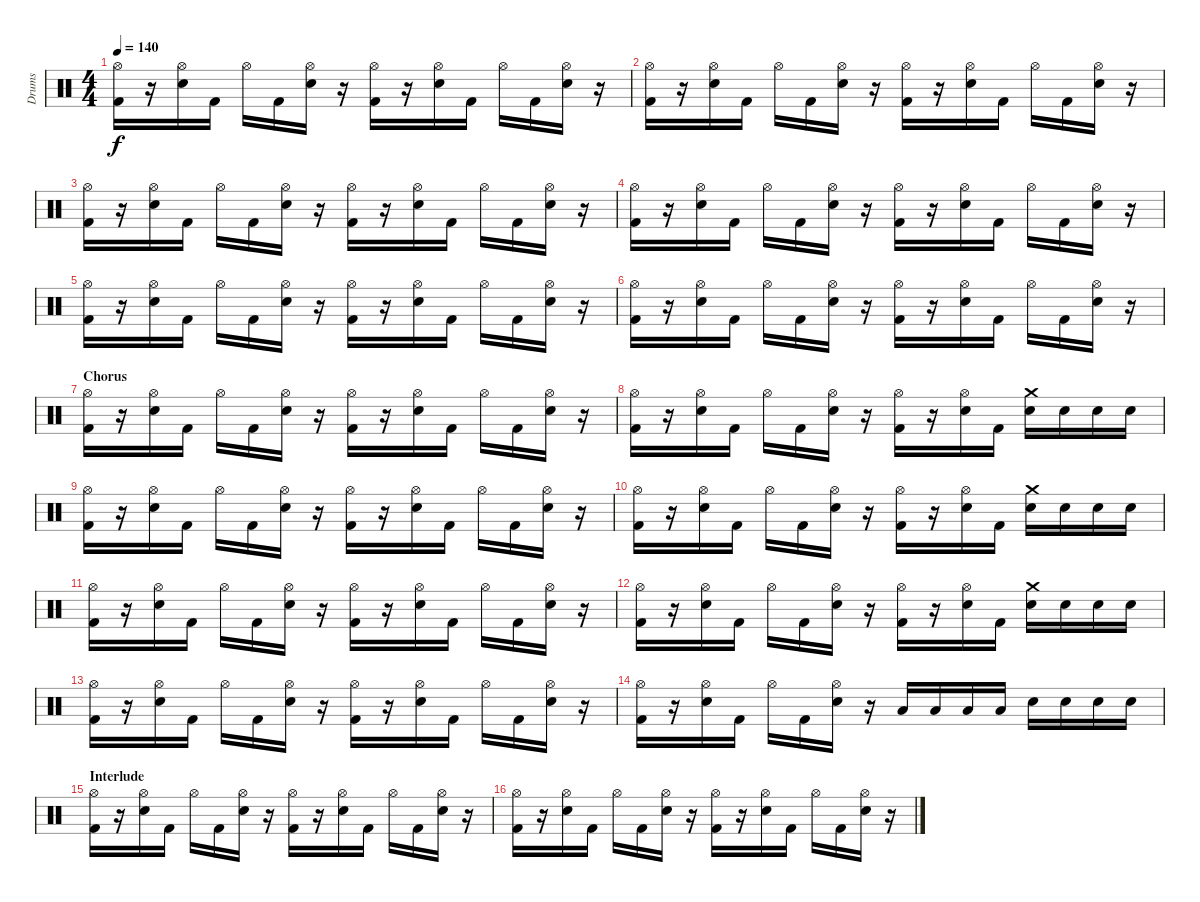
\track ("Drums" "Drums") {instrument percussion}
\staff {score}
\articulation defaults
\ts (4 4)
\tempo 140
\clef neutral
\ks c
("Hi-Hat (open)" "Kick (hit) 2").16{dy f} r.16 ("Hi-Hat (open)" "Electric Snare (hit)").16 "Kick (hit) 2".16 "Hi-Hat (open)".16 "Kick (hit) 2".16 ("Hi-Hat (open)" "Electric Snare (hit)").16 r.16 ("Hi-Hat (open)" "Kick (hit) 2").16 r.16 ("Hi-Hat (open)" "Electric Snare (hit)").16 "Kick (hit) 2".16 "Hi-Hat (open)".16 "Kick (hit) 2".16 ("Hi-Hat (open)" "Electric Snare (hit)").16 r.16 |
("Hi-Hat (open)" "Kick (hit) 2").16 r.16 ("Hi-Hat (open)" "Electric Snare (hit)").16 "Kick (hit) 2".16 "Hi-Hat (open)".16 "Kick (hit) 2".16 ("Hi-Hat (open)" "Electric Snare (hit)").16 r.16 ("Hi-Hat (open)" "Kick (hit) 2").16 r.16 ("Hi-Hat (open)" "Electric Snare (hit)").16 "Kick (hit) 2".16 "Hi-Hat (open)".16 "Kick (hit) 2".16 ("Hi-Hat (open)" "Electric Snare (hit)").16 r.16 |
("Hi-Hat (open)" "Kick (hit) 2").16 r.16 ("Hi-Hat (open)" "Electric Snare (hit)").16 "Kick (hit) 2".16 "Hi-Hat (open)".16 "Kick (hit) 2".16 ("Hi-Hat (open)" "Electric Snare (hit)").16 r.16 ("Hi-Hat (open)" "Kick (hit) 2").16 r.16 ("Hi-Hat (open)" "Electric Snare (hit)").16 "Kick (hit) 2".16 "Hi-Hat (open)".16 "Kick (hit) 2".16 ("Hi-Hat (open)" "Electric Snare (hit)").16 r.16 |
("Hi-Hat (open)" "Kick (hit) 2").16 r.16 ("Hi-Hat (open)" "Electric Snare (hit)").16 "Kick (hit) 2".16 "Hi-Hat (open)".16 "Kick (hit) 2".16 ("Hi-Hat (open)" "Electric Snare (hit)").16 r.16 ("Hi-Hat (open)" "Kick (hit) 2").16 r.16 ("Hi-Hat (open)" "Electric Snare (hit)").16 "Kick (hit) 2".16 "Hi-Hat (open)".16 "Kick (hit) 2".16 ("Hi-Hat (open)" "Electric Snare (hit)").16 r.16 |
("Hi-Hat (open)" "Kick (hit) 2").16 r.16 ("Hi-Hat (open)" "Electric Snare (hit)").16 "Kick (hit) 2".16 "Hi-Hat (open)".16 "Kick (hit) 2".16 ("Hi-Hat (open)" "Electric Snare (hit)").16 r.16 ("Hi-Hat (open)" "Kick (hit) 2").16 r.16 ("Hi-Hat (open)" "Electric Snare (hit)").16 "Kick (hit) 2".16 "Hi-Hat (open)".16 "Kick (hit) 2".16 ("Hi-Hat (open)" "Electric Snare (hit)").16 r.16 |
("Hi-Hat (open)" "Kick (hit) 2").16 r.16 ("Hi-Hat (open)" "Electric Snare (hit)").16 "Kick (hit) 2".16 "Hi-Hat (open)".16 "Kick (hit) 2".16 ("Hi-Hat (open)" "Electric Snare (hit)").16 r.16 ("Hi-Hat (open)" "Kick (hit) 2").16 r.16 ("Hi-Hat (open)" "Electric Snare (hit)").16 "Kick (hit) 2".16 "Hi-Hat (open)".16 "Kick (hit) 2".16 ("Hi-Hat (open)" "Electric Snare (hit)").16 r.16 |
\section ("" "Chorus")
("Hi-Hat (open)" "Kick (hit) 2").16 r.16 ("Hi-Hat (open)" "Electric Snare (hit)").16 "Kick (hit) 2".16 "Hi-Hat (open)".16 "Kick (hit) 2".16 ("Hi-Hat (open)" "Electric Snare (hit)").16 r.16 ("Hi-Hat (open)" "Kick (hit) 2").16 r.16 ("Hi-Hat (open)" "Electric Snare (hit)").16 "Kick (hit) 2".16 "Hi-Hat (open)".16 "Kick (hit) 2".16 ("Hi-Hat (open)" "Electric Snare (hit)").16 r.16 |
("Hi-Hat (open)" "Kick (hit) 2").16 r.16 ("Hi-Hat (open)" "Electric Snare (hit)").16 "Kick (hit) 2".16 "Hi-Hat (open)".16 "Kick (hit) 2".16 ("Hi-Hat (open)" "Electric Snare (hit)").16 r.16 ("Hi-Hat (open)" "Kick (hit) 2").16 r.16 ("Hi-Hat (open)" "Electric Snare (hit)").16 "Kick (hit) 2".16 ("Crash medium (hit)" "Electric Snare (hit)").16 "Electric Snare (hit)".16 "Electric Snare (hit)".16 "Electric Snare (hit)".16 |
("Hi-Hat (open)" "Kick (hit) 2").16 r.16 ("Hi-Hat (open)" "Electric Snare (hit)").16 "Kick (hit) 2".16 "Hi-Hat (open)".16 "Kick (hit) 2".16 ("Hi-Hat (open)" "Electric Snare (hit)").16 r.16 ("Hi-Hat (open)" "Kick (hit) 2").16 r.16 ("Hi-Hat (open)" "Electric Snare (hit)").16 "Kick (hit) 2".16 "Hi-Hat (open)".16 "Kick (hit) 2".16 ("Hi-Hat (open)" "Electric Snare (hit)").16 r.16 |
("Hi-Hat (open)" "Kick (hit) 2").16 r.16 ("Hi-Hat (open)" "Electric Snare (hit)").16 "Kick (hit) 2".16 "Hi-Hat (open)".16 "Kick (hit) 2".16 ("Hi-Hat (open)" "Electric Snare (hit)").16 r.16 ("Hi-Hat (open)" "Kick (hit) 2").16 r.16 ("Hi-Hat (open)" "Electric Snare (hit)").16 "Kick (hit) 2".16 ("Crash medium (hit)" "Electric Snare (hit)").16 "Electric Snare (hit)".16 "Electric Snare (hit)".16 "Electric Snare (hit)".16 |
("Hi-Hat (open)" "Kick (hit) 2").16 r.16 ("Hi-Hat (open)" "Electric Snare (hit)").16 "Kick (hit) 2".16 "Hi-Hat (open)".16 "Kick (hit) 2".16 ("Hi-Hat (open)" "Electric Snare (hit)").16 r.16 ("Hi-Hat (open)" "Kick (hit) 2").16 r.16 ("Hi-Hat (open)" "Electric Snare (hit)").16 "Kick (hit) 2".16 "Hi-Hat (open)".16 "Kick (hit) 2".16 ("Hi-Hat (open)" "Electric Snare (hit)").16 r.16 |
("Hi-Hat (open)" "Kick (hit) 2").16 r.16 ("Hi-Hat (open)" "Electric Snare (hit)").16 "Kick (hit) 2".16 "Hi-Hat (open)".16 "Kick (hit) 2".16 ("Hi-Hat (open)" "Electric Snare (hit)").16 r.16 ("Hi-Hat (open)" "Kick (hit) 2").16 r.16 ("Hi-Hat (open)" "Electric Snare (hit)").16 "Kick (hit) 2".16 ("Crash medium (hit)" "Electric Snare (hit)").16 "Electric Snare (hit)".16 "Electric Snare (hit)".16 "Electric Snare (hit)".16 |
("Hi-Hat (open)" "Kick (hit) 2").16 r.16 ("Hi-Hat (open)" "Electric Snare (hit)").16 "Kick (hit) 2".16 "Hi-Hat (open)".16 "Kick (hit) 2".16 ("Hi-Hat (open)" "Electric Snare (hit)").16 r.16 ("Hi-Hat (open)" "Kick (hit) 2").16 r.16 ("Hi-Hat (open)" "Electric Snare (hit)").16 "Kick (hit) 2".16 "Hi-Hat (open)".16 "Kick (hit) 2".16 ("Hi-Hat (open)" "Electric Snare (hit)").16 r.16 |
("Hi-Hat (open)" "Kick (hit) 2").16 r.16 ("Hi-Hat (open)" "Electric Snare (hit)").16 "Kick (hit) 2".16 "Hi-Hat (open)".16 "Kick (hit) 2".16 ("Hi-Hat (open)" "Electric Snare (hit)").16 r.16 "Low Tom (hit)".16 "Low Tom (hit)".16 "Low Tom (hit)".16 "Low Tom (hit)".16 "Electric Snare (hit)".16 "Electric Snare (hit)".16 "Electric Snare (hit)".16 "Electric Snare (hit)".16 |
\section ("" "Interlude")
("Hi-Hat (open)" "Kick (hit) 2").16 r.16 ("Hi-Hat (open)" "Electric Snare (hit)").16 "Kick (hit) 2".16 "Hi-Hat (open)".16 "Kick (hit) 2".16 ("Hi-Hat (open)" "Electric Snare (hit)").16 r.16 ("Hi-Hat (open)" "Kick (hit) 2").16 r.16 ("Hi-Hat (open)" "Electric Snare (hit)").16 "Kick (hit) 2".16 "Hi-Hat (open)".16 "Kick (hit) 2".16 ("Hi-Hat (open)" "Electric Snare (hit)").16 r.16 |
("Hi-Hat (open)" "Kick (hit) 2").16 r.16 ("Hi-Hat (open)" "Electric Snare (hit)").16 "Kick (hit) 2".16 "Hi-Hat (open)".16 "Kick (hit) 2".16 ("Hi-Hat (open)" "Electric Snare (hit)").16 r.16 ("Hi-Hat (open)" "Kick (hit) 2").16 r.16 ("Hi-Hat (open)" "Electric Snare (hit)").16 "Kick (hit) 2".16 "Hi-Hat (open)".16 "Kick (hit) 2".16 ("Hi-Hat (open)" "Electric Snare (hit)").16 r.16
